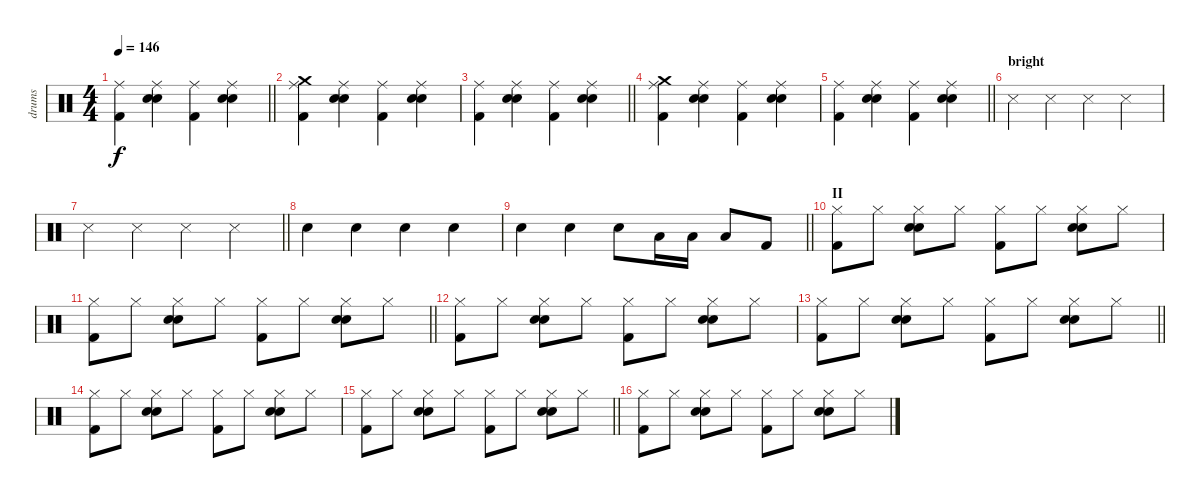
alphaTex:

\track ("drums " "drums ") {instrument percussion}
\staff {score}
\articulation defaults
\ts (4 4)
\tempo 146
\clef neutral
\barLineRight lightlight
\ks c
("Ride (middle)" "Kick (hit) 2").4{dy f} ("Ride (middle)" "Electric Snare (hit)" "Snare (hit) 2").4 ("Ride (middle)" "Kick (hit) 2").4 ("Ride (middle)" "Electric Snare (hit)" "Snare (hit) 2").4 |
("Crash medium (hit)" "Ride (middle)" "Kick (hit) 2").4 ("Ride (middle)" "Electric Snare (hit)" "Snare (hit) 2").4 ("Ride (middle)" "Kick (hit) 2").4 ("Ride (middle)" "Electric Snare (hit)" "Snare (hit) 2").4 |
\barLineRight lightlight
("Ride (middle)" "Kick (hit) 2").4 ("Ride (middle)" "Electric Snare (hit)" "Snare (hit) 2").4 ("Ride (middle)" "Kick (hit) 2").4 ("Ride (middle)" "Electric Snare (hit)" "Snare (hit) 2").4 |
("Crash medium (hit)" "Ride (middle)" "Kick (hit) 2").4 ("Ride (middle)" "Electric Snare (hit)" "Snare (hit) 2").4 ("Ride (middle)" "Kick (hit) 2").4 ("Ride (middle)" "Electric Snare (hit)" "Snare (hit) 2").4 |
\barLineRight lightlight
("Ride (middle)" "Kick (hit) 2").4 ("Ride (middle)" "Electric Snare (hit)" "Snare (hit) 2").4 ("Ride (middle)" "Kick (hit) 2").4 ("Ride (middle)" "Electric Snare (hit)" "Snare (hit) 2").4 |
\section ("" "bright")
"Snare (side stick) 3".4 "Snare (side stick) 3".4 "Snare (side stick) 3".4 "Snare (side stick) 3".4 |
\barLineRight lightlight "Snare (side stick) 3".4 "Snare (side stick) 3".4 "Snare (side stick) 3".4 "Snare (side stick) 3".4
|
"Electric Snare (hit)".4 "Electric Snare (hit)".4 "Electric Snare (hit)".4 "Electric Snare (hit)".4 |
\barLineRight lightlight "Electric Snare (hit)".4 "Electric Snare (hit)".4 "Electric Snare (hit)".8 "Low Floor Tom (hit)".16 "Low Floor Tom (hit)".16 "Low Floor Tom (hit)".8 "Kick (hit) 2".8
|
\section ("" "II")
("Kick (hit) 2" "Hi-Hat (closed)").8 "Hi-Hat (closed)".8 ("Electric Snare (hit)" "Snare (hit) 2" "Hi-Hat (closed)").8 "Hi-Hat (closed)".8 ("Kick (hit) 2" "Hi-Hat (closed)").8 "Hi-Hat (closed)".8 ("Electric Snare (hit)" "Snare (hit) 2" "Hi-Hat (closed)").8 "Hi-Hat (closed)".8 |
\barLineRight lightlight
("Kick (hit) 2" "Hi-Hat (closed)").8 "Hi-Hat (closed)".8 ("Electric Snare (hit)" "Snare (hit) 2" "Hi-Hat (closed)").8 "Hi-Hat (closed)".8 ("Kick (hit) 2" "Hi-Hat (closed)").8 "Hi-Hat (closed)".8 ("Electric Snare (hit)" "Snare (hit) 2" "Hi-Hat (closed)").8 "Hi-Hat (closed)".8 |
("Kick (hit) 2" "Hi-Hat (closed)").8 "Hi-Hat (closed)".8 ("Electric Snare (hit)" "Snare (hit) 2" "Hi-Hat (closed)").8 "Hi-Hat (closed)".8 ("Kick (hit) 2" "Hi-Hat (closed)").8 "Hi-Hat (closed)".8 ("Electric Snare (hit)" "Snare (hit) 2" "Hi-Hat (closed)").8 "Hi-Hat (closed)".8 |
\barLineRight lightlight
("Kick (hit) 2" "Hi-Hat (closed)").8 "Hi-Hat (closed)".8 ("Electric Snare (hit)" "Snare (hit) 2" "Hi-Hat (closed)").8 "Hi-Hat (closed)".8 ("Kick (hit) 2" "Hi-Hat (closed)").8 "Hi-Hat (closed)".8 ("Electric Snare (hit)" "Snare (hit) 2" "Hi-Hat (closed)").8 "Hi-Hat (closed)".8 |
("Kick (hit) 2" "Hi-Hat (closed)").8 "Hi-Hat (closed)".8 ("Electric Snare (hit)" "Snare (hit) 2" "Hi-Hat (closed)").8 "Hi-Hat (closed)".8 ("Kick (hit) 2" "Hi-Hat (closed)").8 "Hi-Hat (closed)".8 ("Electric Snare (hit)" "Snare (hit) 2" "Hi-Hat (closed)").8 "Hi-Hat (closed)".8 |
\barLineRight lightlight
("Kick (hit) 2" "Hi-Hat (closed)").8 "Hi-Hat (closed)".8 ("Electric Snare (hit)" "Snare (hit) 2" "Hi-Hat (closed)").8 "Hi-Hat (closed)".8 ("Kick (hit) 2" "Hi-Hat (closed)").8 "Hi-Hat (closed)".8 ("Electric Snare (hit)" "Snare (hit) 2" "Hi-Hat (closed)").8 "Hi-Hat (closed)".8 |
("Kick (hit) 2" "Hi-Hat (closed)").8 "Hi-Hat (closed)".8 ("Electric Snare (hit)" "Snare (hit) 2" "Hi-Hat (closed)").8 "Hi-Hat (closed)".8 ("Kick (hit) 2" "Hi-Hat (closed)").8 "Hi-Hat (closed)".8 ("Electric Snare (hit)" "Snare (hit) 2" "Hi-Hat (closed)").8 "Hi-Hat (closed)".8
